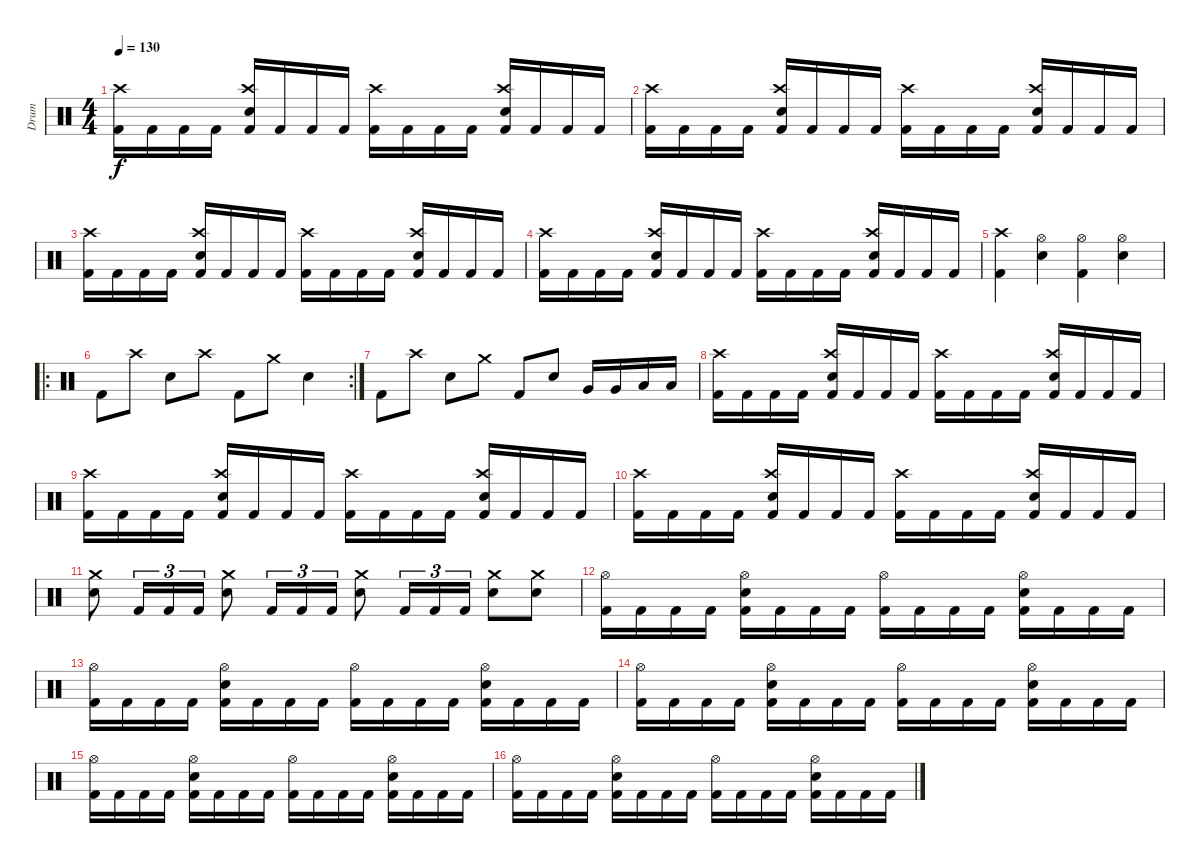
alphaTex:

\track ("Drum" "Drum") {instrument percussion}
\staff {score}
\articulation defaults
\ts (4 4)
\tempo 130
\clef neutral
\ks c
("Kick (hit) 2" "Crash high (hit)").16{dy f} "Kick (hit) 2".16 "Kick (hit) 2".16 "Kick (hit) 2".16 ("Kick (hit) 2" "Electric Snare (hit)" "Crash high (hit)").16 "Kick (hit) 2".16 "Kick (hit) 2".16 "Kick (hit) 2".16 ("Kick (hit) 2" "Crash high (hit)").16 "Kick (hit) 2".16 "Kick (hit) 2".16 "Kick (hit) 2".16 ("Kick (hit) 2" "Electric Snare (hit)" "Crash high (hit)").16 "Kick (hit) 2".16 "Kick (hit) 2".16 "Kick (hit) 2".16 |
("Kick (hit) 2" "Crash high (hit)").16 "Kick (hit) 2".16 "Kick (hit) 2".16 "Kick (hit) 2".16 ("Kick (hit) 2" "Electric Snare (hit)" "Crash high (hit)").16 "Kick (hit) 2".16 "Kick (hit) 2".16 "Kick (hit) 2".16 ("Kick (hit) 2" "Crash high (hit)").16 "Kick (hit) 2".16 "Kick (hit) 2".16 "Kick (hit) 2".16 ("Kick (hit) 2" "Electric Snare (hit)" "Crash high (hit)").16 "Kick (hit) 2".16 "Kick (hit) 2".16 "Kick (hit) 2".16 |
("Kick (hit) 2" "Crash high (hit)").16 "Kick (hit) 2".16 "Kick (hit) 2".16 "Kick (hit) 2".16 ("Kick (hit) 2" "Electric Snare (hit)" "Crash high (hit)").16 "Kick (hit) 2".16 "Kick (hit) 2".16 "Kick (hit) 2".16 ("Kick (hit) 2" "Crash high (hit)").16 "Kick (hit) 2".16 "Kick (hit) 2".16 "Kick (hit) 2".16 ("Kick (hit) 2" "Electric Snare (hit)" "Crash high (hit)").16 "Kick (hit) 2".16 "Kick (hit) 2".16 "Kick (hit) 2".16 |
("Kick (hit) 2" "Crash high (hit)").16 "Kick (hit) 2".16 "Kick (hit) 2".16 "Kick (hit) 2".16 ("Kick (hit) 2" "Electric Snare (hit)" "Crash high (hit)").16 "Kick (hit) 2".16 "Kick (hit) 2".16 "Kick (hit) 2".16 ("Kick (hit) 2" "Crash high (hit)").16 "Kick (hit) 2".16 "Kick (hit) 2".16 "Kick (hit) 2".16 ("Kick (hit) 2" "Electric Snare (hit)" "Crash high (hit)").16 "Kick (hit) 2".16 "Kick (hit) 2".16 "Kick (hit) 2".16 |
("Kick (hit) 2" "Crash high (hit)").4 ("Electric Snare (hit)" "Hi-Hat (open)").4 ("Kick (hit) 2" "Hi-Hat (open)").4 ("Electric Snare (hit)" "Hi-Hat (open)").4 |
\ro
\rc 2 "Kick (hit) 2".8 "Crash high (hit)".8 "Electric Snare (hit)".8 "Crash high (hit)".8 "Kick (hit) 2".8 "Crash medium (hit)".8 "Electric Snare (hit)".4
|
"Kick (hit) 2".8 "Crash high (hit)".8 "Electric Snare (hit)".8 "Crash medium (hit)".8 "Kick (hit) 2".8 "Electric Snare (hit)".8 "Very Low Tom (hit)".16 "Very Low Tom (hit)".16 "Low Tom (hit)".16 "Low Tom (hit)".16 |
("Kick (hit) 2" "Crash high (hit)").16 "Kick (hit) 2".16 "Kick (hit) 2".16 "Kick (hit) 2".16 ("Kick (hit) 2" "Electric Snare (hit)" "Crash high (hit)").16 "Kick (hit) 2".16 "Kick (hit) 2".16 "Kick (hit) 2".16 ("Kick (hit) 2" "Crash high (hit)").16 "Kick (hit) 2".16 "Kick (hit) 2".16 "Kick (hit) 2".16 ("Kick (hit) 2" "Electric Snare (hit)" "Crash high (hit)").16 "Kick (hit) 2".16 "Kick (hit) 2".16 "Kick (hit) 2".16 |
("Kick (hit) 2" "Crash high (hit)").16 "Kick (hit) 2".16 "Kick (hit) 2".16 "Kick (hit) 2".16 ("Kick (hit) 2" "Electric Snare (hit)" "Crash high (hit)").16 "Kick (hit) 2".16 "Kick (hit) 2".16 "Kick (hit) 2".16 ("Kick (hit) 2" "Crash high (hit)").16 "Kick (hit) 2".16 "Kick (hit) 2".16 "Kick (hit) 2".16 ("Kick (hit) 2" "Electric Snare (hit)" "Crash high (hit)").16 "Kick (hit) 2".16 "Kick (hit) 2".16 "Kick (hit) 2".16 |
("Kick (hit) 2" "Crash high (hit)").16 "Kick (hit) 2".16 "Kick (hit) 2".16 "Kick (hit) 2".16 ("Kick (hit) 2" "Electric Snare (hit)" "Crash high (hit)").16 "Kick (hit) 2".16 "Kick (hit) 2".16 "Kick (hit) 2".16 ("Kick (hit) 2" "Crash high (hit)").16 "Kick (hit) 2".16 "Kick (hit) 2".16 "Kick (hit) 2".16 ("Kick (hit) 2" "Electric Snare (hit)" "Crash high (hit)").16 "Kick (hit) 2".16 "Kick (hit) 2".16 "Kick (hit) 2".16 |
("Electric Snare (hit)" "Crash medium (hit)").8 "Kick (hit) 2".16{tu (3 2)} "Kick (hit) 2".16{tu (3 2)} "Kick (hit) 2".16{tu (3 2)} ("Electric Snare (hit)" "Crash medium (hit)").8 "Kick (hit) 2".16{tu (3 2)} "Kick (hit) 2".16{tu (3 2)} "Kick (hit) 2".16{tu (3 2)} ("Electric Snare (hit)" "Crash medium (hit)").8 "Kick (hit) 2".16{tu (3 2)} "Kick (hit) 2".16{tu (3 2)} "Kick (hit) 2".16{tu (3 2)} ("Electric Snare (hit)" "Crash medium (hit)").8 ("Electric Snare (hit)" "Crash medium (hit)").8 |
("Kick (hit) 2" "Hi-Hat (open)").16 "Kick (hit) 2".16 "Kick (hit) 2".16 "Kick (hit) 2".16 ("Kick (hit) 2" "Electric Snare (hit)" "Hi-Hat (open)").16 "Kick (hit) 2".16 "Kick (hit) 2".16 "Kick (hit) 2".16 ("Kick (hit) 2" "Hi-Hat (open)").16 "Kick (hit) 2".16 "Kick (hit) 2".16 "Kick (hit) 2".16 ("Kick (hit) 2" "Electric Snare (hit)" "Hi-Hat (open)").16 "Kick (hit) 2".16 "Kick (hit) 2".16 "Kick (hit) 2".16 |
("Kick (hit) 2" "Hi-Hat (open)").16 "Kick (hit) 2".16 "Kick (hit) 2".16 "Kick (hit) 2".16 ("Kick (hit) 2" "Electric Snare (hit)" "Hi-Hat (open)").16 "Kick (hit) 2".16 "Kick (hit) 2".16 "Kick (hit) 2".16 ("Kick (hit) 2" "Hi-Hat (open)").16 "Kick (hit) 2".16 "Kick (hit) 2".16 "Kick (hit) 2".16 ("Kick (hit) 2" "Electric Snare (hit)" "Hi-Hat (open)").16 "Kick (hit) 2".16 "Kick (hit) 2".16 "Kick (hit) 2".16 |
("Kick (hit) 2" "Hi-Hat (open)").16 "Kick (hit) 2".16 "Kick (hit) 2".16 "Kick (hit) 2".16 ("Kick (hit) 2" "Electric Snare (hit)" "Hi-Hat (open)").16 "Kick (hit) 2".16 "Kick (hit) 2".16 "Kick (hit) 2".16 ("Kick (hit) 2" "Hi-Hat (open)").16 "Kick (hit) 2".16 "Kick (hit) 2".16 "Kick (hit) 2".16 ("Kick (hit) 2" "Electric Snare (hit)" "Hi-Hat (open)").16 "Kick (hit) 2".16 "Kick (hit) 2".16 "Kick (hit) 2".16 |
("Kick (hit) 2" "Hi-Hat (open)").16 "Kick (hit) 2".16 "Kick (hit) 2".16 "Kick (hit) 2".16 ("Kick (hit) 2" "Electric Snare (hit)" "Hi-Hat (open)").16 "Kick (hit) 2".16 "Kick (hit) 2".16 "Kick (hit) 2".16 ("Kick (hit) 2" "Hi-Hat (open)").16 "Kick (hit) 2".16 "Kick (hit) 2".16 "Kick (hit) 2".16 ("Kick (hit) 2" "Electric Snare (hit)" "Hi-Hat (open)").16 "Kick (hit) 2".16 "Kick (hit) 2".16 "Kick (hit) 2".16 |
("Kick (hit) 2" "Hi-Hat (open)").16 "Kick (hit) 2".16 "Kick (hit) 2".16 "Kick (hit) 2".16 ("Kick (hit) 2" "Electric Snare (hit)" "Hi-Hat (open)").16 "Kick (hit) 2".16 "Kick (hit) 2".16 "Kick (hit) 2".16 ("Kick (hit) 2" "Hi-Hat (open)").16 "Kick (hit) 2".16 "Kick (hit) 2".16 "Kick (hit) 2".16 ("Kick (hit) 2" "Electric Snare (hit)" "Hi-Hat (open)").16 "Kick (hit) 2".16 "Kick (hit) 2".16 "Kick (hit) 2".16
